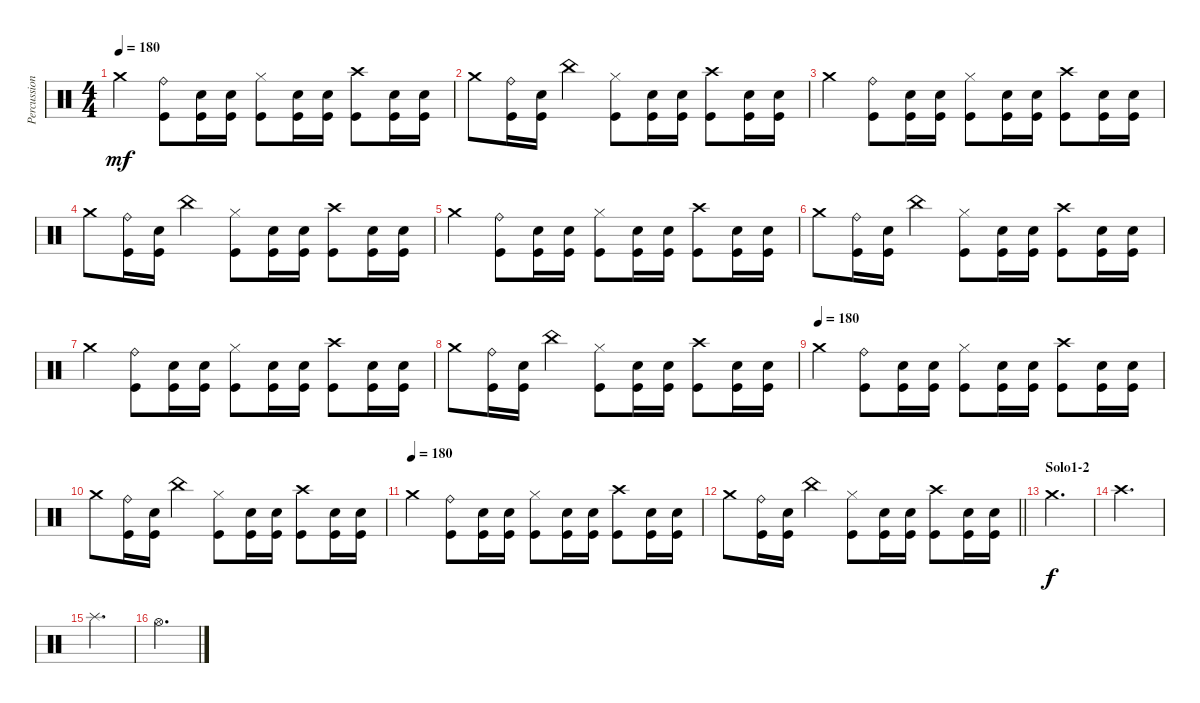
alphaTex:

\track ("Percussion" "Percussion") {instrument percussion}
\staff {score}
\articulation defaults
\ts (4 4)
\tempo 180
\clef neutral
\ks c "Crash medium (hit)".4{dy mf}
("Ride (bell)" "Kick (hit)").8 ("Electric Snare (hit)" "Kick (hit)").16 ("Electric Snare (hit)" "Kick (hit)").16 ("Hi-Hat (closed)" "Kick (hit)").8 ("Electric Snare (hit)" "Kick (hit)").16 ("Electric Snare (hit)" "Kick (hit)").16 ("Crash high (hit)" "Kick (hit)").8 ("Electric Snare (hit)" "Kick (hit)").16 ("Electric Snare (hit)" "Kick (hit)").16 |
"Crash medium (hit)".8 ("Ride (bell)" "Kick (hit)").16 ("Electric Snare (hit)" "Kick (hit)").16 "China (hit)".4 ("Hi-Hat (closed)" "Kick (hit)").8 ("Electric Snare (hit)" "Kick (hit)").16 ("Electric Snare (hit)" "Kick (hit)").16 ("Crash high (hit)" "Kick (hit)").8 ("Electric Snare (hit)" "Kick (hit)").16 ("Electric Snare (hit)" "Kick (hit)").16 |
"Crash medium (hit)".4 ("Ride (bell)" "Kick (hit)").8 ("Electric Snare (hit)" "Kick (hit)").16 ("Electric Snare (hit)" "Kick (hit)").16 ("Hi-Hat (closed)" "Kick (hit)").8 ("Electric Snare (hit)" "Kick (hit)").16 ("Electric Snare (hit)" "Kick (hit)").16 ("Crash high (hit)" "Kick (hit)").8 ("Electric Snare (hit)" "Kick (hit)").16 ("Electric Snare (hit)" "Kick (hit)").16 |
"Crash medium (hit)".8 ("Ride (bell)" "Kick (hit)").16 ("Electric Snare (hit)" "Kick (hit)").16 "China (hit)".4 ("Hi-Hat (closed)" "Kick (hit)").8 ("Electric Snare (hit)" "Kick (hit)").16 ("Electric Snare (hit)" "Kick (hit)").16 ("Crash high (hit)" "Kick (hit)").8 ("Electric Snare (hit)" "Kick (hit)").16 ("Electric Snare (hit)" "Kick (hit)").16 |
"Crash medium (hit)".4 ("Ride (bell)" "Kick (hit)").8 ("Electric Snare (hit)" "Kick (hit)").16 ("Electric Snare (hit)" "Kick (hit)").16 ("Hi-Hat (closed)" "Kick (hit)").8 ("Electric Snare (hit)" "Kick (hit)").16 ("Electric Snare (hit)" "Kick (hit)").16 ("Crash high (hit)" "Kick (hit)").8 ("Electric Snare (hit)" "Kick (hit)").16 ("Electric Snare (hit)" "Kick (hit)").16 |
"Crash medium (hit)".8 ("Ride (bell)" "Kick (hit)").16 ("Electric Snare (hit)" "Kick (hit)").16 "China (hit)".4 ("Hi-Hat (closed)" "Kick (hit)").8 ("Electric Snare (hit)" "Kick (hit)").16 ("Electric Snare (hit)" "Kick (hit)").16 ("Crash high (hit)" "Kick (hit)").8 ("Electric Snare (hit)" "Kick (hit)").16 ("Electric Snare (hit)" "Kick (hit)").16 |
"Crash medium (hit)".4 ("Ride (bell)" "Kick (hit)").8 ("Electric Snare (hit)" "Kick (hit)").16 ("Electric Snare (hit)" "Kick (hit)").16 ("Hi-Hat (closed)" "Kick (hit)").8 ("Electric Snare (hit)" "Kick (hit)").16 ("Electric Snare (hit)" "Kick (hit)").16 ("Crash high (hit)" "Kick (hit)").8 ("Electric Snare (hit)" "Kick (hit)").16 ("Electric Snare (hit)" "Kick (hit)").16 |
"Crash medium (hit)".8 ("Ride (bell)" "Kick (hit)").16 ("Electric Snare (hit)" "Kick (hit)").16 "China (hit)".4 ("Hi-Hat (closed)" "Kick (hit)").8 ("Electric Snare (hit)" "Kick (hit)").16 ("Electric Snare (hit)" "Kick (hit)").16 ("Crash high (hit)" "Kick (hit)").8 ("Electric Snare (hit)" "Kick (hit)").16 ("Electric Snare (hit)" "Kick (hit)").16 |
\tempo (180)
"Crash medium (hit)".4 ("Ride (bell)" "Kick (hit)").8 ("Electric Snare (hit)" "Kick (hit)").16 ("Electric Snare (hit)" "Kick (hit)").16 ("Hi-Hat (closed)" "Kick (hit)").8 ("Electric Snare (hit)" "Kick (hit)").16 ("Electric Snare (hit)" "Kick (hit)").16 ("Crash high (hit)" "Kick (hit)").8 ("Electric Snare (hit)" "Kick (hit)").16 ("Electric Snare (hit)" "Kick (hit)").16 |
"Crash medium (hit)".8 ("Ride (bell)" "Kick (hit)").16 ("Electric Snare (hit)" "Kick (hit)").16 "China (hit)".4 ("Hi-Hat (closed)" "Kick (hit)").8 ("Electric Snare (hit)" "Kick (hit)").16 ("Electric Snare (hit)" "Kick (hit)").16 ("Crash high (hit)" "Kick (hit)").8 ("Electric Snare (hit)" "Kick (hit)").16 ("Electric Snare (hit)" "Kick (hit)").16 |
\tempo (180)
"Crash medium (hit)".4 ("Ride (bell)" "Kick (hit)").8 ("Electric Snare (hit)" "Kick (hit)").16 ("Electric Snare (hit)" "Kick (hit)").16 ("Hi-Hat (closed)" "Kick (hit)").8 ("Electric Snare (hit)" "Kick (hit)").16 ("Electric Snare (hit)" "Kick (hit)").16 ("Crash high (hit)" "Kick (hit)").8 ("Electric Snare (hit)" "Kick (hit)").16 ("Electric Snare (hit)" "Kick (hit)").16 |
\barLineRight lightlight "Crash medium (hit)".8
("Ride (bell)" "Kick (hit)").16 ("Electric Snare (hit)" "Kick (hit)").16 "China (hit)".4 ("Hi-Hat (closed)" "Kick (hit)").8 ("Electric Snare (hit)" "Kick (hit)").16 ("Electric Snare (hit)" "Kick (hit)").16 ("Crash high (hit)" "Kick (hit)").8 ("Electric Snare (hit)" "Kick (hit)").16 ("Electric Snare (hit)" "Kick (hit)").16 |
\section ("" "Solo1-2")
"Crash medium (hit)".4{d dy f} |
"Crash high (hit)".4{d} |
"Splash (hit)".4{d} |
"Hi-Hat (open)".4{d}
